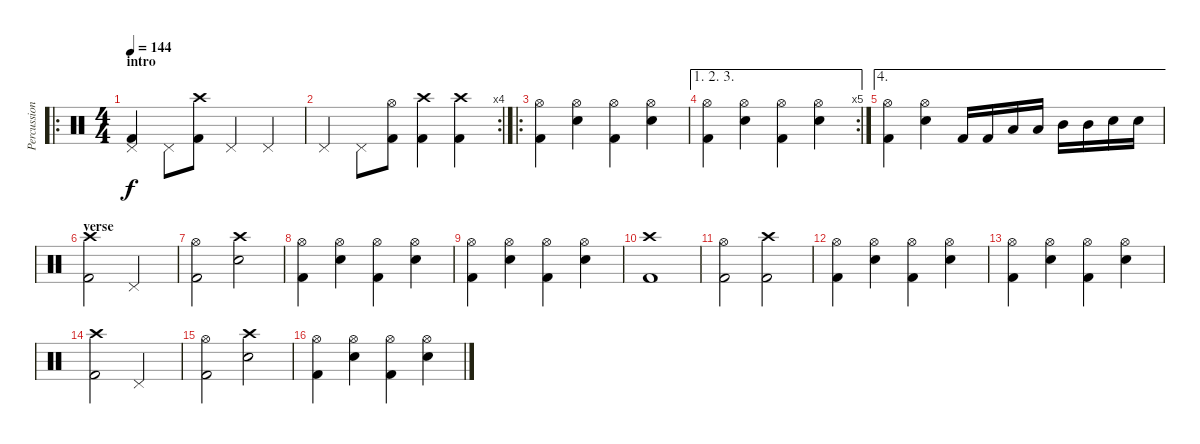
\track ("Percussion" "Percussion") {instrument percussion}
\staff {score}
\articulation defaults
\ro
\ts (4 4)
\section ("" "intro")
\tempo 144
\clef neutral
\ks c
("Pedal Hi-Hat (hit)" "Kick (hit) 2").4{dy f} "Pedal Hi-Hat (hit)".8 ("Crash high (hit)" "Kick (hit) 2").8 "Pedal Hi-Hat (hit)".4 "Pedal Hi-Hat (hit)".4 |
\rc 4 "Pedal Hi-Hat (hit)".4 "Pedal Hi-Hat (hit)".8
("Hi-Hat (open)" "Kick (hit) 2").8 ("Crash high (hit)" "Kick (hit) 2").4 ("Crash high (hit)" "Kick (hit) 2").4 |
\ro
("Hi-Hat (open)" "Kick (hit) 2").4 ("Hi-Hat (open)" "Electric Snare (hit)").4 ("Hi-Hat (open)" "Kick (hit) 2").4 ("Hi-Hat (open)" "Electric Snare (hit)").4 |
\ae (1 2 3)
\rc 5
("Hi-Hat (open)" "Kick (hit) 2").4 ("Hi-Hat (open)" "Electric Snare (hit)").4 ("Hi-Hat (open)" "Kick (hit) 2").4 ("Hi-Hat (open)" "Electric Snare (hit)").4 |
\ae 4
("Hi-Hat (open)" "Kick (hit) 2").4 ("Hi-Hat (open)" "Electric Snare (hit)").4 "Kick (hit) 2".16 "Kick (hit) 2".16 "Low Tom (hit)".16 "Low Tom (hit)".16 "Mid Tom (hit)".16 "Mid Tom (hit)".16 "Electric Snare (hit)".16 "Electric Snare (hit)".16 |
\section ("" "verse")
("Crash high (hit)" "Kick (hit) 2").2 "Pedal Hi-Hat (hit)".2 |
("Hi-Hat (open)" "Kick (hit) 2").2 ("Crash high (hit)" "Electric Snare (hit)").2 |
("Hi-Hat (open)" "Kick (hit) 2").4 ("Hi-Hat (open)" "Electric Snare (hit)").4 ("Hi-Hat (open)" "Kick (hit) 2").4 ("Hi-Hat (open)" "Electric Snare (hit)").4 |
("Hi-Hat (open)" "Kick (hit) 2").4 ("Hi-Hat (open)" "Electric Snare (hit)").4 ("Hi-Hat (open)" "Kick (hit) 2").4 ("Hi-Hat (open)" "Electric Snare (hit)").4 |
("Crash high (hit)" "Kick (hit) 2").1 |
("Hi-Hat (open)" "Kick (hit) 2").2 ("Crash high (hit)" "Kick (hit) 2").2 |
("Hi-Hat (open)" "Kick (hit) 2").4 ("Hi-Hat (open)" "Electric Snare (hit)").4 ("Hi-Hat (open)" "Kick (hit) 2").4 ("Hi-Hat (open)" "Electric Snare (hit)").4 |
("Hi-Hat (open)" "Kick (hit) 2").4 ("Hi-Hat (open)" "Electric Snare (hit)").4 ("Hi-Hat (open)" "Kick (hit) 2").4 ("Hi-Hat (open)" "Electric Snare (hit)").4 |
("Crash high (hit)" "Kick (hit) 2").2 "Pedal Hi-Hat (hit)".2 |
("Hi-Hat (open)" "Kick (hit) 2").2 ("Crash high (hit)" "Electric Snare (hit)").2 |
("Hi-Hat (open)" "Kick (hit) 2").4 ("Hi-Hat (open)" "Electric Snare (hit)").4 ("Hi-Hat (open)" "Kick (hit) 2").4 ("Hi-Hat (open)" "Electric Snare (hit)").4
